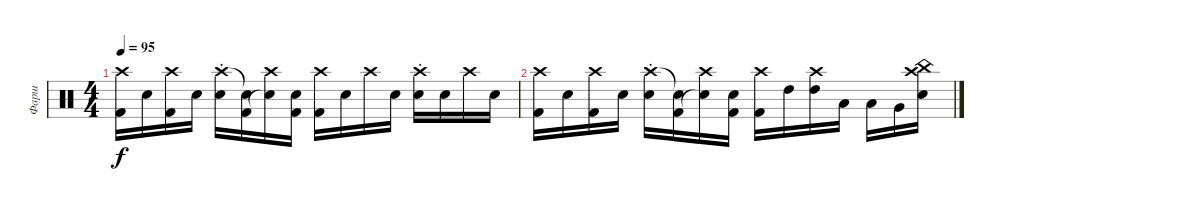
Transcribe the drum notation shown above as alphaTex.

\track ("Фарш" "Фарш") {instrument percussion}
\staff {score}
\articulation defaults
\ts (4 4)
\tempo 95
\clef neutral
\ks c
("Crash high (hit)" "Kick (hit) 2").16{dy f} "Snare (hit)".16 ("Crash high (hit)" "Kick (hit) 2").16 "Snare (hit)".16 ("Crash high (hit)"{st} "Electric Snare (hit)").16 ("Snare (hit)"{t} "Kick (hit) 2").16 ("Crash high (hit)" "Snare (hit)"{t}).16 ("Snare (hit)" "Kick (hit) 2").16 ("Crash high (hit)" "Kick (hit) 2").16 "Snare (hit)".16 "Crash high (hit)".16 "Snare (hit)".16 ("Crash high (hit)"{st} "Electric Snare (hit)").16 "Snare (hit)".16 "Crash high (hit)".16 "Snare (hit)".16 |
("Crash high (hit)" "Kick (hit) 2").16 "Snare (hit)".16 ("Crash high (hit)" "Kick (hit) 2").16 "Snare (hit)".16 ("Crash high (hit)"{st} "Electric Snare (hit)").16 ("Snare (hit)"{t} "Kick (hit) 2").16 ("Crash high (hit)" "Snare (hit)"{t}).16 ("Snare (hit)" "Kick (hit) 2").16 ("Crash high (hit)" "Kick (hit) 2").16 "High Tom (hit)".16 ("Crash high (hit)" "High Tom (hit)").16 "Low Tom (hit)".16 "Low Tom (hit)".16 "Very Low Tom (hit)".16 ("Crash high (hit)" "China (hit)" "Electric Snare (hit)").16
